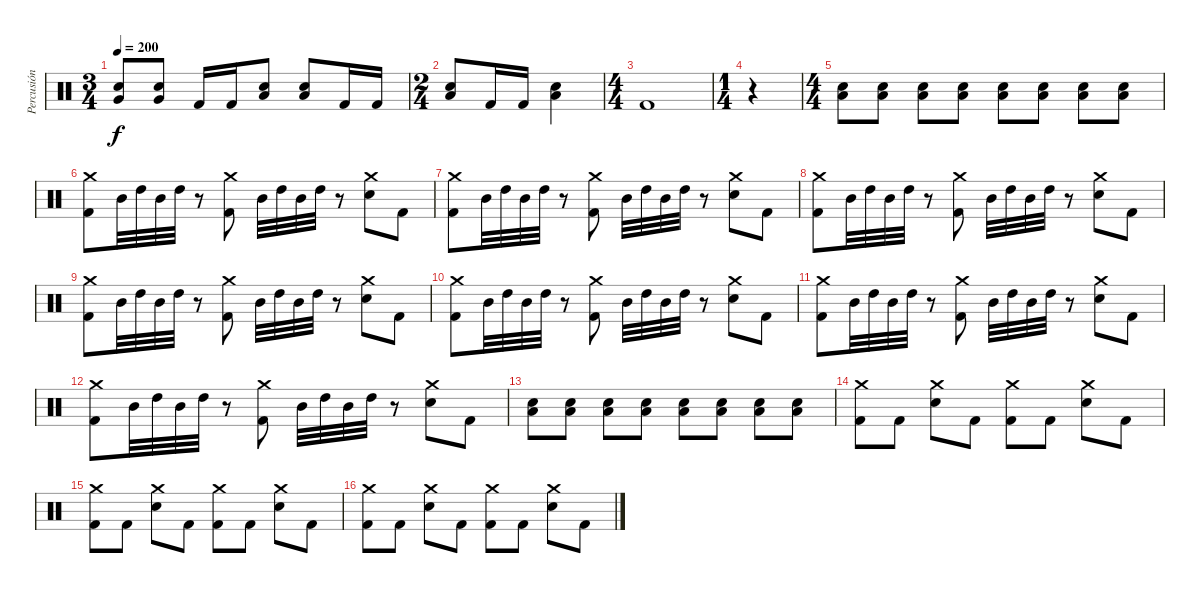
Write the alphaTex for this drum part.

\track ("Percusión" "Percusión") {instrument percussion}
\staff {score}
\articulation defaults
\ts (3 4)
\tempo 200
\clef neutral
\ks c
("Very Low Tom (hit)" "Electric Snare (hit)").8{dy f} ("Very Low Tom (hit)" "Electric Snare (hit)").8 "Kick (hit) 2".16 "Kick (hit) 2".16 ("Low Tom (hit)" "Electric Snare (hit)").8 ("Low Tom (hit)" "Electric Snare (hit)").8 "Kick (hit) 2".16 "Kick (hit) 2".16 |
\ts (2 4)
("Low Tom (hit)" "Electric Snare (hit)").8 "Kick (hit) 2".16 "Kick (hit) 2".16 ("Low Tom (hit)" "Electric Snare (hit)").4 |
\ts (4 4)
"Kick (hit) 2".1 |
\ts (1 4)
r.4 |
\ts (4 4)
("Low Tom (hit)" "Electric Snare (hit)").8{volume 9} ("Low Tom (hit)" "Electric Snare (hit)").8{volume 10} ("Low Tom (hit)" "Electric Snare (hit)").8{volume 11} ("Low Tom (hit)" "Electric Snare (hit)").8{volume 12} ("Low Tom (hit)" "Electric Snare (hit)").8{volume 13} ("Low Tom (hit)" "Electric Snare (hit)").8{volume 14} ("Low Tom (hit)" "Electric Snare (hit)").8{volume 16} ("Low Tom (hit)" "Electric Snare (hit)").8 |
("Crash medium (hit)" "Kick (hit) 2").8 "Mid Tom (hit)".32 "High Tom (hit)".32 "Mid Tom (hit)".32 "High Tom (hit)".32 r.8 ("Crash medium (hit)" "Kick (hit) 2").8 "Mid Tom (hit)".32 "High Tom (hit)".32 "Mid Tom (hit)".32 "High Tom (hit)".32 r.8 ("Crash medium (hit)" "Electric Snare (hit)").8 "Kick (hit) 2".8 |
("Crash medium (hit)" "Kick (hit) 2").8 "Mid Tom (hit)".32 "High Tom (hit)".32 "Mid Tom (hit)".32 "High Tom (hit)".32 r.8 ("Crash medium (hit)" "Kick (hit) 2").8 "Mid Tom (hit)".32 "High Tom (hit)".32 "Mid Tom (hit)".32 "High Tom (hit)".32 r.8 ("Crash medium (hit)" "Electric Snare (hit)").8 "Kick (hit) 2".8 |
("Crash medium (hit)" "Kick (hit) 2").8 "Mid Tom (hit)".32 "High Tom (hit)".32 "Mid Tom (hit)".32 "High Tom (hit)".32 r.8 ("Crash medium (hit)" "Kick (hit) 2").8 "Mid Tom (hit)".32 "High Tom (hit)".32 "Mid Tom (hit)".32 "High Tom (hit)".32 r.8 ("Crash medium (hit)" "Electric Snare (hit)").8 "Kick (hit) 2".8 |
("Crash medium (hit)" "Kick (hit) 2").8 "Mid Tom (hit)".32 "High Tom (hit)".32 "Mid Tom (hit)".32 "High Tom (hit)".32 r.8 ("Crash medium (hit)" "Kick (hit) 2").8 "Mid Tom (hit)".32 "High Tom (hit)".32 "Mid Tom (hit)".32 "High Tom (hit)".32 r.8 ("Crash medium (hit)" "Electric Snare (hit)").8 "Kick (hit) 2".8 |
("Crash medium (hit)" "Kick (hit) 2").8 "Mid Tom (hit)".32 "High Tom (hit)".32 "Mid Tom (hit)".32 "High Tom (hit)".32 r.8 ("Crash medium (hit)" "Kick (hit) 2").8 "Mid Tom (hit)".32 "High Tom (hit)".32 "Mid Tom (hit)".32 "High Tom (hit)".32 r.8 ("Crash medium (hit)" "Electric Snare (hit)").8 "Kick (hit) 2".8 |
("Crash medium (hit)" "Kick (hit) 2").8 "Mid Tom (hit)".32 "High Tom (hit)".32 "Mid Tom (hit)".32 "High Tom (hit)".32 r.8 ("Crash medium (hit)" "Kick (hit) 2").8 "Mid Tom (hit)".32 "High Tom (hit)".32 "Mid Tom (hit)".32 "High Tom (hit)".32 r.8 ("Crash medium (hit)" "Electric Snare (hit)").8 "Kick (hit) 2".8 |
("Crash medium (hit)" "Kick (hit) 2").8 "Mid Tom (hit)".32 "High Tom (hit)".32 "Mid Tom (hit)".32 "High Tom (hit)".32 r.8 ("Crash medium (hit)" "Kick (hit) 2").8 "Mid Tom (hit)".32 "High Tom (hit)".32 "Mid Tom (hit)".32 "High Tom (hit)".32 r.8 ("Crash medium (hit)" "Electric Snare (hit)").8 "Kick (hit) 2".8 |
("Low Tom (hit)" "Electric Snare (hit)").8 ("Low Tom (hit)" "Electric Snare (hit)").8 ("Low Tom (hit)" "Electric Snare (hit)").8 ("Low Tom (hit)" "Electric Snare (hit)").8 ("Low Tom (hit)" "Electric Snare (hit)").8 ("Low Tom (hit)" "Electric Snare (hit)").8 ("Low Tom (hit)" "Electric Snare (hit)").8 ("Low Tom (hit)" "Electric Snare (hit)").8 |
("Crash medium (hit)" "Kick (hit) 2").8 "Kick (hit) 2".8 ("Crash medium (hit)" "Electric Snare (hit)").8 "Kick (hit) 2".8 ("Crash medium (hit)" "Kick (hit) 2").8 "Kick (hit) 2".8 ("Crash medium (hit)" "Electric Snare (hit)").8 "Kick (hit) 2".8 |
("Crash medium (hit)" "Kick (hit) 2").8 "Kick (hit) 2".8 ("Crash medium (hit)" "Electric Snare (hit)").8 "Kick (hit) 2".8 ("Crash medium (hit)" "Kick (hit) 2").8 "Kick (hit) 2".8 ("Crash medium (hit)" "Electric Snare (hit)").8 "Kick (hit) 2".8 |
("Crash medium (hit)" "Kick (hit) 2").8 "Kick (hit) 2".8 ("Crash medium (hit)" "Electric Snare (hit)").8 "Kick (hit) 2".8 ("Crash medium (hit)" "Kick (hit) 2").8 "Kick (hit) 2".8 ("Crash medium (hit)" "Electric Snare (hit)").8 "Kick (hit) 2".8
